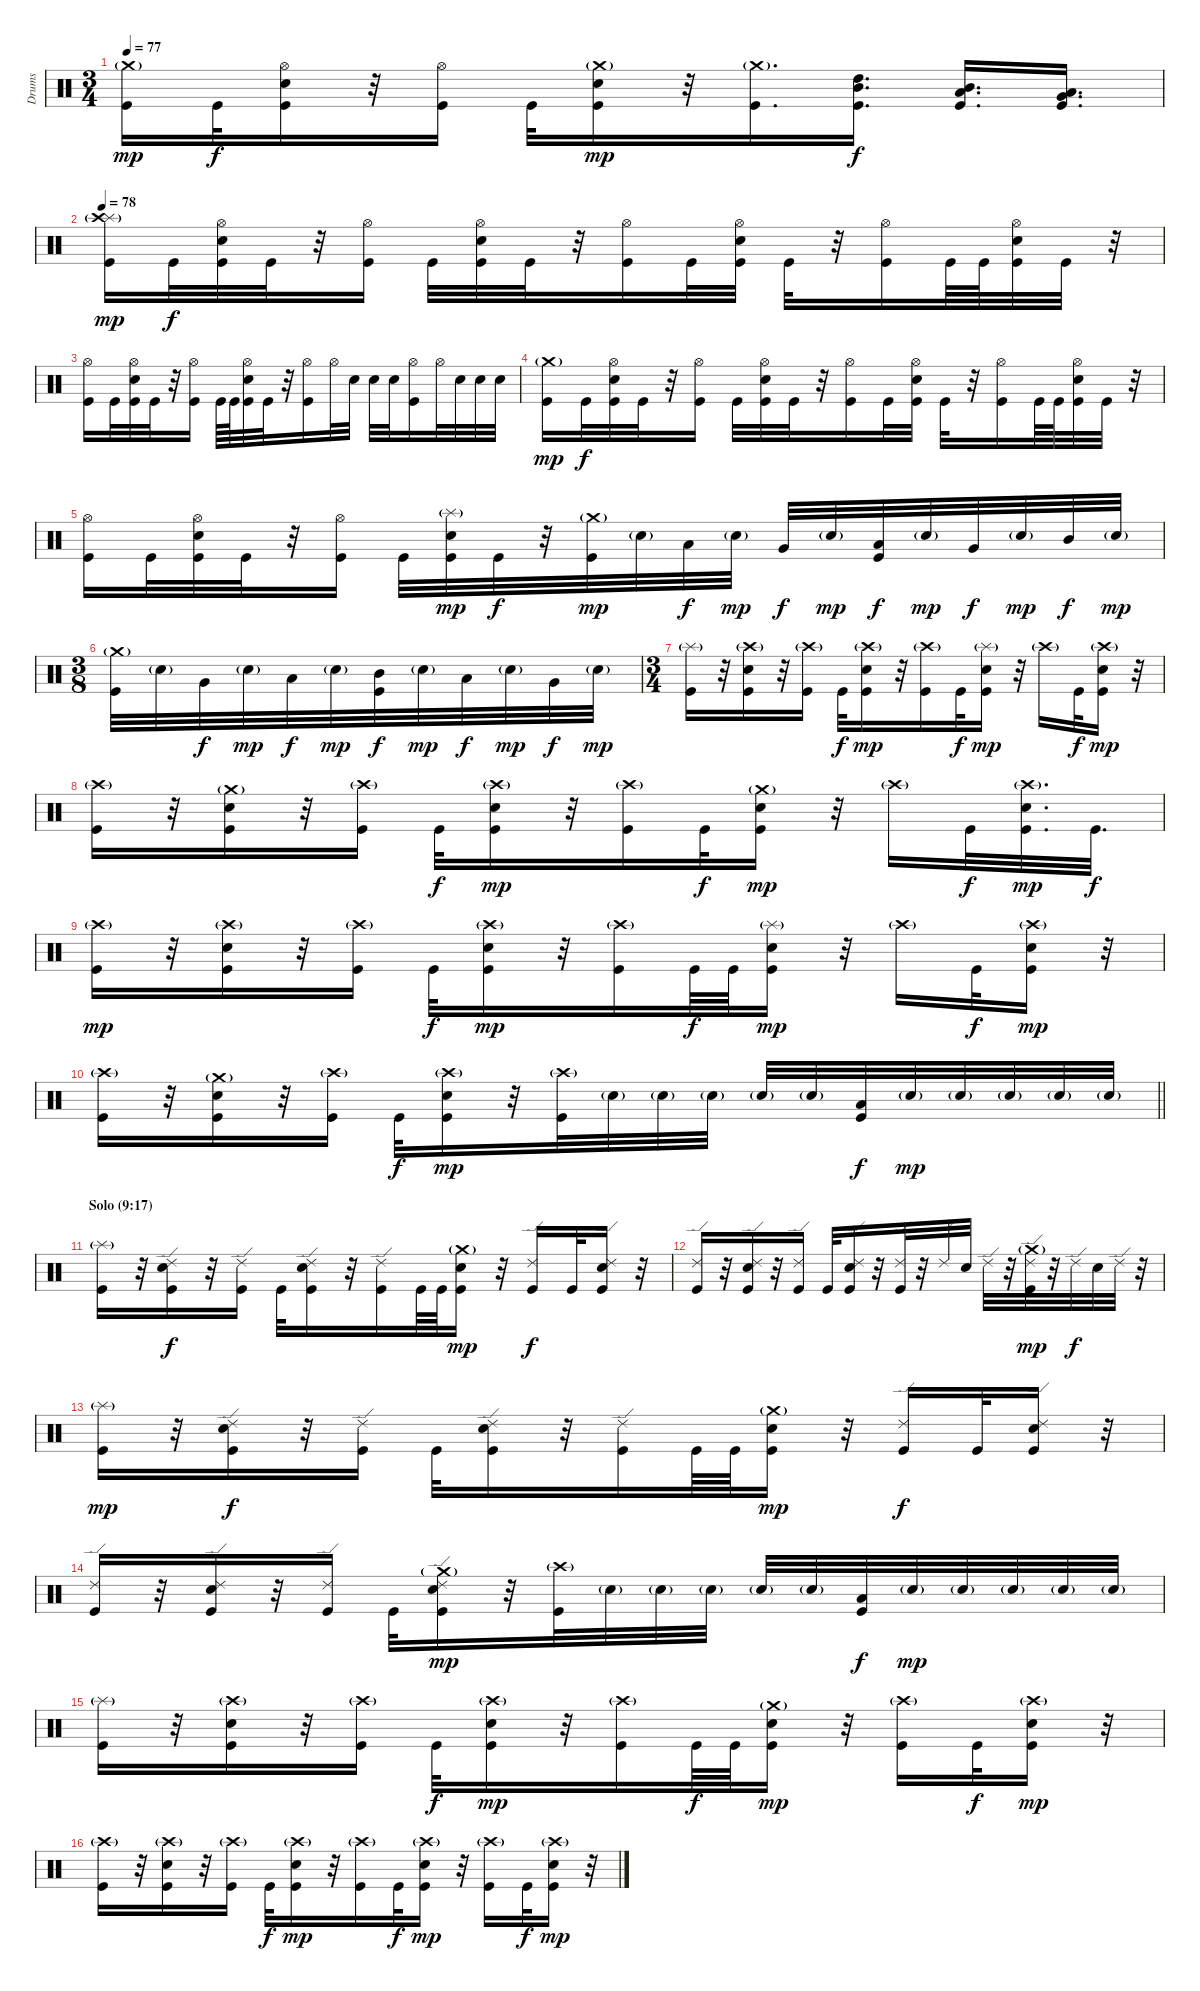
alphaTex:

\track ("Drums" "Drums") {instrument percussion}
\staff {score}
\articulation defaults
\ts (3 4)
\tempo 77
\clef neutral
\ks c
("Crash medium (hit)"{g} "Kick (hit)").16{dy mp} "Kick (hit)".32{dy f} ("Hi-Hat (open)" "Snare (hit) 2" "Kick (hit)").16 r.32 ("Hi-Hat (open)" "Kick (hit)").16 "Kick (hit)".32 ("Crash medium (hit)"{g} "Snare (hit) 2" "Kick (hit)").16{dy mp} r.32 ("Crash medium (hit)"{g} "Kick (hit)").16{d} ("High Tom (hit)" "Mid Tom (hit)" "Kick (hit)").16{d dy f} ("Mid Tom (hit)" "Low Tom (hit)" "Kick (hit)").16{d} ("Low Tom (hit)" "Very Low Tom (hit)" "Kick (hit)").16{d} |
\tempo 78
("Splash (hit)"{g} "Crash high (hit)"{g} "Kick (hit)").16{dy mp} "Kick (hit)".32{dy f} ("Hi-Hat (open)" "Snare (hit) 2" "Kick (hit)").32 "Kick (hit)".32 r.32 ("Hi-Hat (open)" "Kick (hit)").16 "Kick (hit)".32 ("Hi-Hat (open)" "Snare (hit) 2" "Kick (hit)").32 "Kick (hit)".32 r.32 ("Hi-Hat (open)" "Kick (hit)").16 "Kick (hit)".32 ("Hi-Hat (open)" "Snare (hit) 2" "Kick (hit)").32 "Kick (hit)".32 r.32 ("Hi-Hat (open)" "Kick (hit)").16 "Kick (hit)".64 "Kick (hit)".64 ("Hi-Hat (open)" "Snare (hit) 2" "Kick (hit)").32 "Kick (hit)".32 r.32 |
("Hi-Hat (open)" "Kick (hit)").16 "Kick (hit)".32 ("Hi-Hat (open)" "Snare (hit) 2" "Kick (hit)").32 "Kick (hit)".32 r.32 ("Hi-Hat (open)" "Kick (hit)").16 "Kick (hit)".64 "Kick (hit)".64 ("Hi-Hat (open)" "Snare (hit) 2" "Kick (hit)").32 "Kick (hit)".32 r.32 ("Hi-Hat (open)" "Kick (hit)").16 "Hi-Hat (open)".32 "Snare (hit) 2".32 "Snare (hit) 2".32 "Snare (hit) 2".32 ("Hi-Hat (open)" "Kick (hit)").16 "Hi-Hat (open)".32 "Snare (hit) 2".32 "Snare (hit) 2".32 "Snare (hit) 2".32 |
("Crash medium (hit)"{g} "Kick (hit)").16{dy mp} "Kick (hit)".32{dy f} ("Hi-Hat (open)" "Snare (hit) 2" "Kick (hit)").32 "Kick (hit)".32 r.32 ("Hi-Hat (open)" "Kick (hit)").16 "Kick (hit)".32 ("Hi-Hat (open)" "Snare (hit) 2" "Kick (hit)").32 "Kick (hit)".32 r.32 ("Hi-Hat (open)" "Kick (hit)").16 "Kick (hit)".32 ("Hi-Hat (open)" "Snare (hit) 2" "Kick (hit)").32 "Kick (hit)".32 r.32 ("Hi-Hat (open)" "Kick (hit)").16 "Kick (hit)".64 "Kick (hit)".64 ("Hi-Hat (open)" "Snare (hit) 2" "Kick (hit)").32 "Kick (hit)".32 r.32 |
("Hi-Hat (open)" "Kick (hit)").16 "Kick (hit)".32 ("Hi-Hat (open)" "Snare (hit) 2" "Kick (hit)").32 "Kick (hit)".32 r.32 ("Hi-Hat (open)" "Kick (hit)").16 "Kick (hit)".32 ("Splash (hit)"{g} "Snare (hit) 2" "Kick (hit)").32{dy mp} "Kick (hit)".32{dy f} r.32 ("Crash medium (hit)"{g} "Kick (hit)").32{dy mp} "Snare (hit) 2"{g}.32 "Low Floor Tom (hit)".32{dy f} "Snare (hit) 2"{g}.32{dy mp} "Very Low Tom (hit)".32{dy f} "Snare (hit) 2"{g}.32{dy mp} ("Low Tom (hit)" "Kick (hit)").32{dy f} "Snare (hit) 2"{g}.32{dy mp} "Very Low Tom (hit)".32{dy f} "Snare (hit) 2"{g}.32{dy mp} "Mid Tom (hit)".32{dy f} "Snare (hit) 2"{g}.32{dy mp} |
\ts (3 8)
("Crash medium (hit)"{g} "Kick (hit)").32 "Snare (hit) 2"{g}.32 "Very Low Tom (hit)".32{dy f} "Snare (hit) 2"{g}.32{dy mp} "Low Tom (hit)".32{dy f} "Snare (hit) 2"{g}.32{dy mp} ("Mid Tom (hit)" "Kick (hit)").32{dy f} "Snare (hit) 2"{g}.32{dy mp} "Low Tom (hit)".32{dy f} "Snare (hit) 2"{g}.32{dy mp} "Very Low Tom (hit)".32{dy f} "Snare (hit) 2"{g}.32{dy mp} |
\ts (3 4)
("Splash (hit)"{g} "Kick (hit)").16 r.32 ("Crash high (hit)"{g} "Snare (hit) 2" "Kick (hit)").16 r.32 ("Crash high (hit)"{g} "Kick (hit)").16 "Kick (hit)".32{dy f} ("Crash high (hit)"{g} "Snare (hit) 2" "Kick (hit)").16{dy mp} r.32 ("Crash high (hit)"{g} "Kick (hit)").16 "Kick (hit)".32{dy f} ("Splash (hit)"{g} "Snare (hit) 2" "Kick (hit)").16{dy mp} r.32 "Crash high (hit)"{g}.16 "Kick (hit)".32{dy f} ("Crash high (hit)"{g} "Snare (hit) 2" "Kick (hit)").16{dy mp} r.32 |
("Crash high (hit)"{g} "Kick (hit)").16 r.32 ("Crash medium (hit)"{g} "Snare (hit) 2" "Kick (hit)").16 r.32 ("Crash high (hit)"{g} "Kick (hit)").16 "Kick (hit)".32{dy f} ("Crash high (hit)"{g} "Snare (hit) 2" "Kick (hit)").16{dy mp} r.32 ("Crash high (hit)"{g} "Kick (hit)").16 "Kick (hit)".32{dy f} ("Crash medium (hit)"{g} "Snare (hit) 2" "Kick (hit)").16{dy mp} r.32 "Crash high (hit)"{g}.16 "Kick (hit)".32{dy f} ("Crash high (hit)"{g} "Snare (hit) 2" "Kick (hit)").32{d dy mp} "Kick (hit)".32{d dy f} |
("Crash high (hit)"{g} "Kick (hit)").16{dy mp} r.32 ("Crash high (hit)"{g} "Snare (hit) 2" "Kick (hit)").16 r.32 ("Crash high (hit)"{g} "Kick (hit)").16 "Kick (hit)".32{dy f} ("Crash high (hit)"{g} "Snare (hit) 2" "Kick (hit)").16{dy mp} r.32 ("Crash high (hit)"{g} "Kick (hit)").16 "Kick (hit)".64{dy f} "Kick (hit)".64 ("Splash (hit)"{g} "Snare (hit) 2" "Kick (hit)").16{dy mp} r.32 "Crash high (hit)"{g}.16 "Kick (hit)".32{dy f} ("Crash high (hit)"{g} "Snare (hit) 2" "Kick (hit)").16{dy mp} r.32 |
\barLineRight lightlight
("Crash high (hit)"{g} "Kick (hit)").16 r.32 ("Crash medium (hit)"{g} "Snare (hit) 2" "Kick (hit)").16 r.32 ("Crash high (hit)"{g} "Kick (hit)").16 "Kick (hit)".32{dy f} ("Crash high (hit)"{g} "Snare (hit) 2" "Kick (hit)").16{dy mp} r.32 ("Crash high (hit)"{g} "Kick (hit)").32 "Snare (hit) 2"{g}.32 "Snare (hit) 2"{g}.32 "Snare (hit) 2"{g}.32 "Snare (hit) 2"{g}.32 "Snare (hit) 2"{g}.32 ("Low Tom (hit)" "Kick (hit)").32{dy f} "Snare (hit) 2"{g}.32{dy mp} "Snare (hit) 2"{g}.32 "Snare (hit) 2"{g}.32 "Snare (hit) 2"{g}.32 "Snare (hit) 2"{g}.32 |
\section ("" "Solo (9:17)")
("Splash (hit)"{g} "Kick (hit)").16 r.32 ("Ride (edge) 2" "Snare (hit) 2" "Kick (hit)").16{dy f} r.32 ("Ride (edge) 2" "Kick (hit)").16 "Kick (hit)".32 ("Ride (edge) 2" "Snare (hit) 2" "Kick (hit)").16 r.32 ("Ride (edge) 2" "Kick (hit)").16 "Kick (hit)".64 "Kick (hit)".64 ("Crash medium (hit)"{g} "Snare (hit) 2" "Kick (hit)").16{dy mp} r.32 ("Ride (edge) 2" "Kick (hit)").16{dy f} "Kick (hit)".32 ("Ride (edge) 2" "Snare (hit) 2" "Kick (hit)").16 r.32 |
("Ride (edge) 2" "Kick (hit)").16 r.32 ("Ride (edge) 2" "Snare (hit) 2" "Kick (hit)").16 r.32 ("Ride (edge) 2" "Kick (hit)").16 "Kick (hit)".32 ("Ride (edge) 2" "Snare (hit) 2" "Kick (hit)").16 r.32 ("Ride (edge) 2" "Kick (hit)").32 r.32 "Ride (edge) 2".32 "Snare (hit) 2".32 "Ride (edge) 2".32 r.32 ("Crash medium (hit)"{g} "Ride (edge) 2" "Kick (hit)").32{dy mp} r.32 "Ride (edge) 2".32{dy f} "Snare (hit) 2".32 "Ride (edge) 2".32 r.32 |
("Splash (hit)"{g} "Kick (hit)").16{dy mp} r.32 ("Ride (edge) 2" "Snare (hit) 2" "Kick (hit)").16{dy f} r.32 ("Ride (edge) 2" "Kick (hit)").16 "Kick (hit)".32 ("Ride (edge) 2" "Snare (hit) 2" "Kick (hit)").16 r.32 ("Ride (edge) 2" "Kick (hit)").16 "Kick (hit)".64 "Kick (hit)".64 ("Crash medium (hit)"{g} "Snare (hit) 2" "Kick (hit)").16{dy mp} r.32 ("Ride (edge) 2" "Kick (hit)").16{dy f} "Kick (hit)".32 ("Ride (edge) 2" "Snare (hit) 2" "Kick (hit)").16 r.32 |
("Ride (edge) 2" "Kick (hit)").16 r.32 ("Ride (edge) 2" "Snare (hit) 2" "Kick (hit)").16 r.32 ("Ride (edge) 2" "Kick (hit)").16 "Kick (hit)".32 ("Crash medium (hit)"{g} "Ride (edge) 2" "Snare (hit) 2" "Kick (hit)").16{dy mp} r.32 ("Crash high (hit)"{g} "Kick (hit)").32 "Snare (hit) 2"{g}.32 "Snare (hit) 2"{g}.32 "Snare (hit) 2"{g}.32 "Snare (hit) 2"{g}.32 "Snare (hit) 2"{g}.32 ("Low Tom (hit)" "Kick (hit)").32{dy f} "Snare (hit) 2"{g}.32{dy mp} "Snare (hit) 2"{g}.32 "Snare (hit) 2"{g}.32 "Snare (hit) 2"{g}.32 "Snare (hit) 2"{g}.32 |
("Splash (hit)"{g} "Kick (hit)").16 r.32 ("Crash high (hit)"{g} "Snare (hit) 2" "Kick (hit)").16 r.32 ("Crash high (hit)"{g} "Kick (hit)").16 "Kick (hit)".32{dy f} ("Crash high (hit)"{g} "Snare (hit) 2" "Kick (hit)").16{dy mp} r.32 ("Crash high (hit)"{g} "Kick (hit)").16 "Kick (hit)".64{dy f} "Kick (hit)".64 ("Crash medium (hit)"{g} "Snare (hit) 2" "Kick (hit)").16{dy mp} r.32 ("Crash high (hit)"{g} "Kick (hit)").16 "Kick (hit)".32{dy f} ("Crash high (hit)"{g} "Snare (hit) 2" "Kick (hit)").16{dy mp} r.32 |
("Crash high (hit)"{g} "Kick (hit)").16 r.32 ("Crash high (hit)"{g} "Snare (hit) 2" "Kick (hit)").16 r.32 ("Crash high (hit)"{g} "Kick (hit)").16 "Kick (hit)".32{dy f} ("Crash high (hit)"{g} "Snare (hit) 2" "Kick (hit)").16{dy mp} r.32 ("Crash high (hit)"{g} "Kick (hit)").16 "Kick (hit)".32{dy f} ("Crash high (hit)"{g} "Snare (hit) 2" "Kick (hit)").16{dy mp} r.32 ("Crash high (hit)"{g} "Kick (hit)").16 "Kick (hit)".32{dy f} ("Crash high (hit)"{g} "Snare (hit) 2" "Kick (hit)").16{dy mp} r.32
